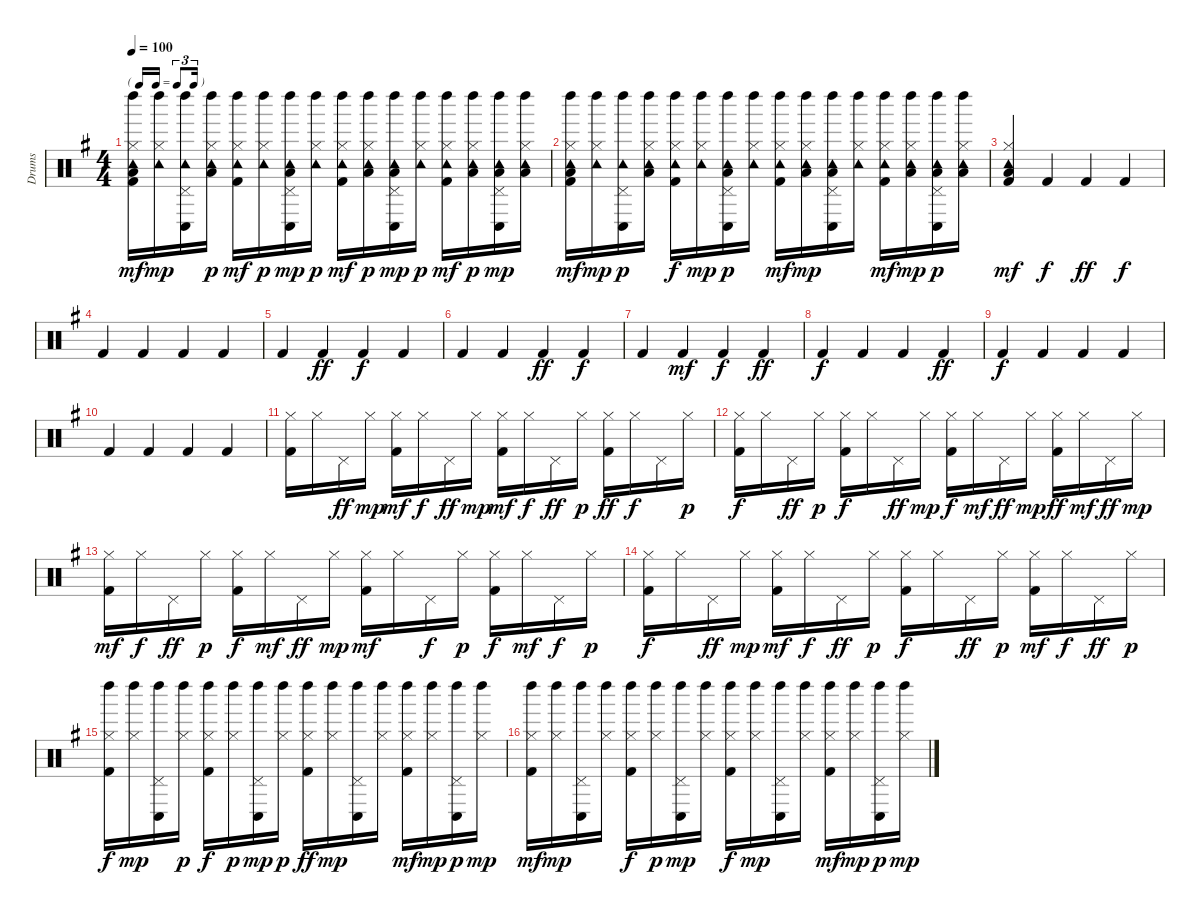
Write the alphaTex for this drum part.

\track ("Drums" "Drums") {instrument percussion}
\staff {score}
\articulation defaults
\ts (4 4)
\tf triplet16th
\tempo 100
\clef neutral
\ks g
("Kick (hit) 2" "Low Floor Tom (hit)" "Hi-Hat (closed)" "Tambourine (hit)" "Left Maraca (hit)").16{dy mf} ("Hi-Hat (closed)" "Tambourine (hit)" "Left Maraca (hit)").16{dy mp} ("Pedal Hi-Hat (hit)" "Tambourine (hit)" "Conga low (hit)" "Left Maraca (hit)").16 ("Low Floor Tom (hit)" "Hi-Hat (closed)" "Tambourine (hit)" "Left Maraca (hit)").16{dy p} ("Kick (hit) 2" "Hi-Hat (closed)" "Tambourine (hit)" "Left Maraca (hit)").16{dy mf} ("Hi-Hat (closed)" "Tambourine (hit)" "Left Maraca (hit)").16{dy p} ("Low Floor Tom (hit)" "Pedal Hi-Hat (hit)" "Tambourine (hit)" "Conga low (hit)" "Left Maraca (hit)").16{dy mp} ("Hi-Hat (closed)" "Tambourine (hit)" "Left Maraca (hit)").16{dy p} ("Kick (hit) 2" "Hi-Hat (closed)" "Tambourine (hit)" "Left Maraca (hit)").16{dy mf} ("Low Floor Tom (hit)" "Hi-Hat (closed)" "Tambourine (hit)" "Left Maraca (hit)").16{dy p} ("Low Floor Tom (hit)" "Pedal Hi-Hat (hit)" "Tambourine (hit)" "Conga low (hit)" "Left Maraca (hit)").16{dy mp} ("Hi-Hat (closed)" "Tambourine (hit)" "Left Maraca (hit)").16{dy p} ("Kick (hit) 2" "Hi-Hat (closed)" "Tambourine (hit)" "Left Maraca (hit)").16{dy mf} ("Low Floor Tom (hit)" "Hi-Hat (closed)" "Tambourine (hit)" "Left Maraca (hit)").16{dy p} ("Low Floor Tom (hit)" "Pedal Hi-Hat (hit)" "Tambourine (hit)" "Conga low (hit)" "Left Maraca (hit)").16{dy mp} ("Low Floor Tom (hit)" "Hi-Hat (closed)" "Tambourine (hit)" "Left Maraca (hit)").16 |
("Kick (hit) 2" "Low Floor Tom (hit)" "Hi-Hat (closed)" "Tambourine (hit)" "Left Maraca (hit)").16{dy mf} ("Hi-Hat (closed)" "Tambourine (hit)" "Left Maraca (hit)").16{dy mp} ("Pedal Hi-Hat (hit)" "Tambourine (hit)" "Conga low (hit)" "Left Maraca (hit)").16{dy p} ("Low Floor Tom (hit)" "Hi-Hat (closed)" "Tambourine (hit)" "Left Maraca (hit)").16 ("Kick (hit) 2" "Hi-Hat (closed)" "Tambourine (hit)" "Left Maraca (hit)").16{dy f} ("Hi-Hat (closed)" "Tambourine (hit)" "Left Maraca (hit)").16{dy mp} ("Low Floor Tom (hit)" "Pedal Hi-Hat (hit)" "Tambourine (hit)" "Conga low (hit)" "Left Maraca (hit)").16{dy p} ("Hi-Hat (closed)" "Tambourine (hit)" "Left Maraca (hit)").16 ("Kick (hit) 2" "Hi-Hat (closed)" "Tambourine (hit)" "Left Maraca (hit)").16{dy mf} ("Low Floor Tom (hit)" "Hi-Hat (closed)" "Tambourine (hit)" "Left Maraca (hit)").16{dy mp} ("Low Floor Tom (hit)" "Pedal Hi-Hat (hit)" "Tambourine (hit)" "Conga low (hit)" "Left Maraca (hit)").16 ("Hi-Hat (closed)" "Tambourine (hit)" "Left Maraca (hit)").16 ("Kick (hit) 2" "Hi-Hat (closed)" "Tambourine (hit)" "Left Maraca (hit)").16{dy mf} ("Low Floor Tom (hit)" "Hi-Hat (closed)" "Tambourine (hit)" "Left Maraca (hit)").16{dy mp} ("Low Floor Tom (hit)" "Pedal Hi-Hat (hit)" "Tambourine (hit)" "Conga low (hit)" "Left Maraca (hit)").16{dy p} ("Low Floor Tom (hit)" "Hi-Hat (closed)" "Tambourine (hit)" "Left Maraca (hit)").16 |
("Kick (hit) 2" "Low Floor Tom (hit)" "Hi-Hat (closed)" "Tambourine (hit)").4{dy mf} "Kick (hit) 2".4{dy f} "Kick (hit) 2".4{dy ff} "Kick (hit) 2".4{dy f} |
"Kick (hit) 2".4 "Kick (hit) 2".4 "Kick (hit) 2".4 "Kick (hit) 2".4 |
"Kick (hit) 2".4 "Kick (hit) 2".4{dy ff} "Kick (hit) 2".4{dy f} "Kick (hit) 2".4 |
"Kick (hit) 2".4 "Kick (hit) 2".4 "Kick (hit) 2".4{dy ff} "Kick (hit) 2".4{dy f} |
"Kick (hit) 2".4 "Kick (hit) 2".4{dy mf} "Kick (hit) 2".4{dy f} "Kick (hit) 2".4{dy ff} |
"Kick (hit) 2".4{dy f} "Kick (hit) 2".4 "Kick (hit) 2".4 "Kick (hit) 2".4{dy ff} |
"Kick (hit) 2".4{dy f} "Kick (hit) 2".4 "Kick (hit) 2".4 "Kick (hit) 2".4 |
"Kick (hit) 2".4 "Kick (hit) 2".4 "Kick (hit) 2".4 "Kick (hit) 2".4 |
("Kick (hit) 2" "Hi-Hat (closed)").16 "Hi-Hat (closed)".16 "Pedal Hi-Hat (hit)".16{dy ff} "Hi-Hat (closed)".16{dy mp} ("Kick (hit) 2" "Hi-Hat (closed)").16{dy mf} "Hi-Hat (closed)".16{dy f} "Pedal Hi-Hat (hit)".16{dy ff} "Hi-Hat (closed)".16{dy mp} ("Kick (hit) 2" "Hi-Hat (closed)").16{dy mf} "Hi-Hat (closed)".16{dy f} "Pedal Hi-Hat (hit)".16{dy ff} "Hi-Hat (closed)".16{dy p} ("Kick (hit) 2" "Hi-Hat (closed)").16{dy ff} "Hi-Hat (closed)".16{dy f} "Pedal Hi-Hat (hit)".16 "Hi-Hat (closed)".16{dy p} |
("Kick (hit) 2" "Hi-Hat (closed)").16{dy f} "Hi-Hat (closed)".16 "Pedal Hi-Hat (hit)".16{dy ff} "Hi-Hat (closed)".16{dy p} ("Kick (hit) 2" "Hi-Hat (closed)").16{dy f} "Hi-Hat (closed)".16 "Pedal Hi-Hat (hit)".16{dy ff} "Hi-Hat (closed)".16{dy mp} ("Kick (hit) 2" "Hi-Hat (closed)").16{dy f} "Hi-Hat (closed)".16{dy mf} "Pedal Hi-Hat (hit)".16{dy ff} "Hi-Hat (closed)".16{dy mp} ("Kick (hit) 2" "Hi-Hat (closed)").16{dy ff} "Hi-Hat (closed)".16{dy mf} "Pedal Hi-Hat (hit)".16{dy ff} "Hi-Hat (closed)".16{dy mp} |
("Kick (hit) 2" "Hi-Hat (closed)").16{dy mf} "Hi-Hat (closed)".16{dy f} "Pedal Hi-Hat (hit)".16{dy ff} "Hi-Hat (closed)".16{dy p} ("Kick (hit) 2" "Hi-Hat (closed)").16{dy f} "Hi-Hat (closed)".16{dy mf} "Pedal Hi-Hat (hit)".16{dy ff} "Hi-Hat (closed)".16{dy mp} ("Kick (hit) 2" "Hi-Hat (closed)").16{dy mf} "Hi-Hat (closed)".16 "Pedal Hi-Hat (hit)".16{dy f} "Hi-Hat (closed)".16{dy p} ("Kick (hit) 2" "Hi-Hat (closed)").16{dy f} "Hi-Hat (closed)".16{dy mf} "Pedal Hi-Hat (hit)".16{dy f} "Hi-Hat (closed)".16{dy p} |
("Kick (hit) 2" "Hi-Hat (closed)").16{dy f} "Hi-Hat (closed)".16 "Pedal Hi-Hat (hit)".16{dy ff} "Hi-Hat (closed)".16{dy mp} ("Kick (hit) 2" "Hi-Hat (closed)").16{dy mf} "Hi-Hat (closed)".16{dy f} "Pedal Hi-Hat (hit)".16{dy ff} "Hi-Hat (closed)".16{dy p} ("Kick (hit) 2" "Hi-Hat (closed)").16{dy f} "Hi-Hat (closed)".16 "Pedal Hi-Hat (hit)".16{dy ff} "Hi-Hat (closed)".16{dy p} ("Kick (hit) 2" "Hi-Hat (closed)").16{dy mf} "Hi-Hat (closed)".16{dy f} "Pedal Hi-Hat (hit)".16{dy ff} "Hi-Hat (closed)".16{dy p} |
("Kick (hit) 2" "Hi-Hat (closed)" "Left Maraca (hit)").16{dy f} ("Hi-Hat (closed)" "Left Maraca (hit)").16{dy mp} ("Pedal Hi-Hat (hit)" "Conga low (hit)" "Left Maraca (hit)").16 ("Hi-Hat (closed)" "Left Maraca (hit)").16{dy p} ("Kick (hit) 2" "Hi-Hat (closed)" "Left Maraca (hit)").16{dy f} ("Hi-Hat (closed)" "Left Maraca (hit)").16{dy p} ("Pedal Hi-Hat (hit)" "Conga low (hit)" "Left Maraca (hit)").16{dy mp} ("Hi-Hat (closed)" "Left Maraca (hit)").16{dy p} ("Kick (hit) 2" "Hi-Hat (closed)" "Left Maraca (hit)").16{dy ff} ("Hi-Hat (closed)" "Left Maraca (hit)").16{dy mp} ("Pedal Hi-Hat (hit)" "Conga low (hit)" "Left Maraca (hit)").16 ("Hi-Hat (closed)" "Left Maraca (hit)").16 ("Kick (hit) 2" "Hi-Hat (closed)" "Left Maraca (hit)").16{dy mf} ("Hi-Hat (closed)" "Left Maraca (hit)").16{dy mp} ("Pedal Hi-Hat (hit)" "Conga low (hit)" "Left Maraca (hit)").16{dy p} ("Hi-Hat (closed)" "Left Maraca (hit)").16{dy mp} |
("Kick (hit) 2" "Hi-Hat (closed)" "Left Maraca (hit)").16{dy mf} ("Hi-Hat (closed)" "Left Maraca (hit)").16{dy mp} ("Pedal Hi-Hat (hit)" "Conga low (hit)" "Left Maraca (hit)").16 ("Hi-Hat (closed)" "Left Maraca (hit)").16 ("Kick (hit) 2" "Hi-Hat (closed)" "Left Maraca (hit)").16{dy f} ("Hi-Hat (closed)" "Left Maraca (hit)").16{dy p} ("Pedal Hi-Hat (hit)" "Conga low (hit)" "Left Maraca (hit)").16{dy mp} ("Hi-Hat (closed)" "Left Maraca (hit)").16 ("Kick (hit) 2" "Hi-Hat (closed)" "Left Maraca (hit)").16{dy f} ("Hi-Hat (closed)" "Left Maraca (hit)").16{dy mp} ("Pedal Hi-Hat (hit)" "Conga low (hit)" "Left Maraca (hit)").16 ("Hi-Hat (closed)" "Left Maraca (hit)").16 ("Kick (hit) 2" "Hi-Hat (closed)" "Left Maraca (hit)").16{dy mf} ("Hi-Hat (closed)" "Left Maraca (hit)").16{dy mp} ("Pedal Hi-Hat (hit)" "Conga low (hit)" "Left Maraca (hit)").16{dy p} ("Hi-Hat (closed)" "Left Maraca (hit)").16{dy mp}
